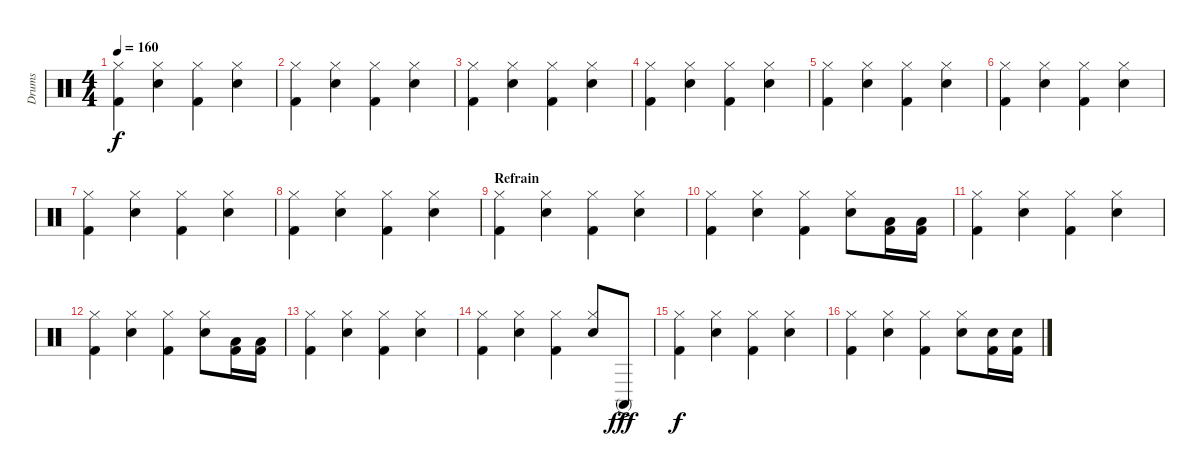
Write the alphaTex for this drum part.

\track ("Drums" "Drums") {instrument percussion}
\staff {score}
\articulation defaults
\ts (4 4)
\tempo 160
\clef neutral
\ks c
("Hi-Hat (closed)" "Kick (hit) 2").4{dy f} ("Hi-Hat (closed)" "Snare (hit) 2").4 ("Hi-Hat (closed)" "Kick (hit) 2").4 ("Hi-Hat (closed)" "Snare (hit) 2").4 |
("Hi-Hat (closed)" "Kick (hit) 2").4 ("Hi-Hat (closed)" "Snare (hit) 2").4 ("Hi-Hat (closed)" "Kick (hit) 2").4 ("Hi-Hat (closed)" "Snare (hit) 2").4 |
("Hi-Hat (closed)" "Kick (hit) 2").4 ("Hi-Hat (closed)" "Snare (hit) 2").4 ("Hi-Hat (closed)" "Kick (hit) 2").4 ("Hi-Hat (closed)" "Snare (hit) 2").4 |
("Hi-Hat (closed)" "Kick (hit) 2").4 ("Hi-Hat (closed)" "Snare (hit) 2").4 ("Hi-Hat (closed)" "Kick (hit) 2").4 ("Hi-Hat (closed)" "Snare (hit) 2").4 |
("Hi-Hat (closed)" "Kick (hit) 2").4 ("Hi-Hat (closed)" "Snare (hit) 2").4 ("Hi-Hat (closed)" "Kick (hit) 2").4 ("Hi-Hat (closed)" "Snare (hit) 2").4 |
("Hi-Hat (closed)" "Kick (hit) 2").4 ("Hi-Hat (closed)" "Snare (hit) 2").4 ("Hi-Hat (closed)" "Kick (hit) 2").4 ("Hi-Hat (closed)" "Snare (hit) 2").4 |
("Hi-Hat (closed)" "Kick (hit) 2").4 ("Hi-Hat (closed)" "Snare (hit) 2").4 ("Hi-Hat (closed)" "Kick (hit) 2").4 ("Hi-Hat (closed)" "Snare (hit) 2").4 |
("Hi-Hat (closed)" "Kick (hit) 2").4 ("Hi-Hat (closed)" "Snare (hit) 2").4 ("Hi-Hat (closed)" "Kick (hit) 2").4 ("Hi-Hat (closed)" "Snare (hit) 2").4 |
\section ("" "Refrain")
("Hi-Hat (closed)" "Kick (hit) 2").4 ("Hi-Hat (closed)" "Snare (hit) 2").4 ("Hi-Hat (closed)" "Kick (hit) 2").4 ("Hi-Hat (closed)" "Snare (hit) 2").4 |
("Hi-Hat (closed)" "Kick (hit) 2").4 ("Hi-Hat (closed)" "Snare (hit) 2").4 ("Hi-Hat (closed)" "Kick (hit) 2").4 ("Hi-Hat (closed)" "Snare (hit) 2").8 ("Low Tom (hit)" "Kick (hit) 2").16 ("Low Floor Tom (hit)" "Kick (hit) 2").16 |
("Hi-Hat (closed)" "Kick (hit) 2").4 ("Hi-Hat (closed)" "Snare (hit) 2").4 ("Hi-Hat (closed)" "Kick (hit) 2").4 ("Hi-Hat (closed)" "Snare (hit) 2").4 |
("Hi-Hat (closed)" "Kick (hit) 2").4 ("Hi-Hat (closed)" "Snare (hit) 2").4 ("Hi-Hat (closed)" "Kick (hit) 2").4 ("Hi-Hat (closed)" "Snare (hit) 2").8 ("Low Tom (hit)" "Kick (hit) 2").16 ("Low Floor Tom (hit)" "Kick (hit) 2").16 |
("Hi-Hat (closed)" "Kick (hit) 2").4 ("Hi-Hat (closed)" "Snare (hit) 2").4 ("Hi-Hat (closed)" "Kick (hit) 2").4 ("Hi-Hat (closed)" "Snare (hit) 2").4 |
("Hi-Hat (closed)" "Kick (hit) 2").4 ("Hi-Hat (closed)" "Snare (hit) 2").4 ("Hi-Hat (closed)" "Kick (hit) 2").4 ("Hi-Hat (closed)" "Snare (hit) 2").8 "Conga high (mute)"{ac}.8{dy fff} |
("Hi-Hat (closed)" "Kick (hit) 2").4{dy f} ("Hi-Hat (closed)" "Snare (hit) 2").4 ("Hi-Hat (closed)" "Kick (hit) 2").4 ("Hi-Hat (closed)" "Snare (hit) 2").4 |
("Hi-Hat (closed)" "Kick (hit) 2").4 ("Hi-Hat (closed)" "Snare (hit) 2").4 ("Hi-Hat (closed)" "Kick (hit) 2").4 ("Hi-Hat (closed)" "Snare (hit) 2").8 ("Snare (hit) 2" "Kick (hit) 2").16 ("Snare (hit) 2" "Kick (hit) 2").16
